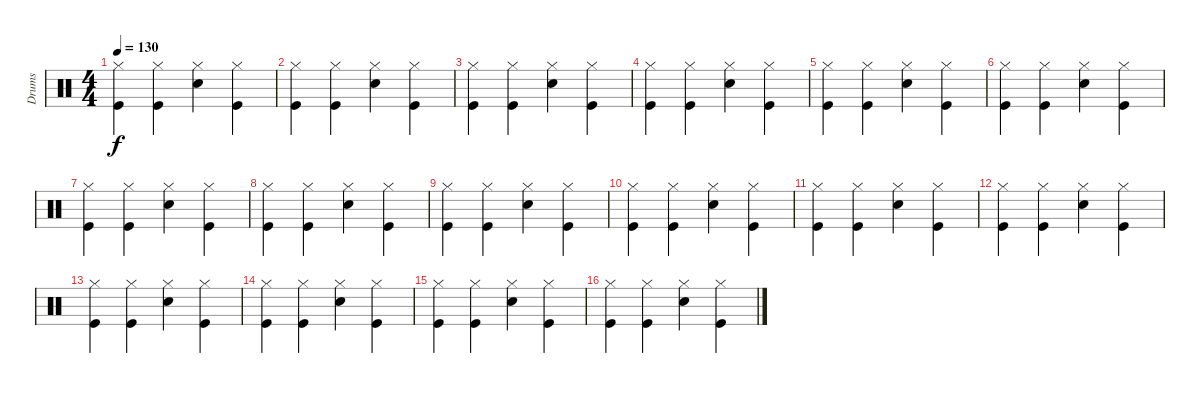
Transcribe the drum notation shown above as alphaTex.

\track ("Drums" "Drums") {instrument percussion}
\staff {score}
\articulation defaults
\ts (4 4)
\tempo 130
\clef neutral
\ks c
("Kick (hit)" "Hi-Hat (closed)").4{dy f} ("Kick (hit)" "Hi-Hat (closed)").4 ("Snare (hit) 2" "Hi-Hat (closed)").4 ("Kick (hit)" "Hi-Hat (closed)").4 |
("Kick (hit)" "Hi-Hat (closed)").4 ("Kick (hit)" "Hi-Hat (closed)").4 ("Snare (hit) 2" "Hi-Hat (closed)").4 ("Kick (hit)" "Hi-Hat (closed)").4 |
("Kick (hit)" "Hi-Hat (closed)").4 ("Kick (hit)" "Hi-Hat (closed)").4 ("Snare (hit) 2" "Hi-Hat (closed)").4 ("Kick (hit)" "Hi-Hat (closed)").4 |
("Kick (hit)" "Hi-Hat (closed)").4 ("Kick (hit)" "Hi-Hat (closed)").4 ("Snare (hit) 2" "Hi-Hat (closed)").4 ("Kick (hit)" "Hi-Hat (closed)").4 |
("Kick (hit)" "Hi-Hat (closed)").4 ("Kick (hit)" "Hi-Hat (closed)").4 ("Snare (hit) 2" "Hi-Hat (closed)").4 ("Kick (hit)" "Hi-Hat (closed)").4 |
("Kick (hit)" "Hi-Hat (closed)").4 ("Kick (hit)" "Hi-Hat (closed)").4 ("Snare (hit) 2" "Hi-Hat (closed)").4 ("Kick (hit)" "Hi-Hat (closed)").4 |
("Kick (hit)" "Hi-Hat (closed)").4 ("Kick (hit)" "Hi-Hat (closed)").4 ("Snare (hit) 2" "Hi-Hat (closed)").4 ("Kick (hit)" "Hi-Hat (closed)").4 |
("Kick (hit)" "Hi-Hat (closed)").4 ("Kick (hit)" "Hi-Hat (closed)").4 ("Snare (hit) 2" "Hi-Hat (closed)").4 ("Kick (hit)" "Hi-Hat (closed)").4 |
("Kick (hit)" "Hi-Hat (closed)").4 ("Kick (hit)" "Hi-Hat (closed)").4 ("Snare (hit) 2" "Hi-Hat (closed)").4 ("Kick (hit)" "Hi-Hat (closed)").4 |
("Kick (hit)" "Hi-Hat (closed)").4 ("Kick (hit)" "Hi-Hat (closed)").4 ("Snare (hit) 2" "Hi-Hat (closed)").4 ("Kick (hit)" "Hi-Hat (closed)").4 |
("Kick (hit)" "Hi-Hat (closed)").4 ("Kick (hit)" "Hi-Hat (closed)").4 ("Snare (hit) 2" "Hi-Hat (closed)").4 ("Kick (hit)" "Hi-Hat (closed)").4 |
("Kick (hit)" "Hi-Hat (closed)").4 ("Kick (hit)" "Hi-Hat (closed)").4 ("Snare (hit) 2" "Hi-Hat (closed)").4 ("Kick (hit)" "Hi-Hat (closed)").4 |
("Kick (hit)" "Hi-Hat (closed)").4 ("Kick (hit)" "Hi-Hat (closed)").4 ("Snare (hit) 2" "Hi-Hat (closed)").4 ("Kick (hit)" "Hi-Hat (closed)").4 |
("Kick (hit)" "Hi-Hat (closed)").4 ("Kick (hit)" "Hi-Hat (closed)").4 ("Snare (hit) 2" "Hi-Hat (closed)").4 ("Kick (hit)" "Hi-Hat (closed)").4 |
("Kick (hit)" "Hi-Hat (closed)").4 ("Kick (hit)" "Hi-Hat (closed)").4 ("Snare (hit) 2" "Hi-Hat (closed)").4 ("Kick (hit)" "Hi-Hat (closed)").4 |
("Kick (hit)" "Hi-Hat (closed)").4 ("Kick (hit)" "Hi-Hat (closed)").4 ("Snare (hit) 2" "Hi-Hat (closed)").4 ("Kick (hit)" "Hi-Hat (closed)").4
